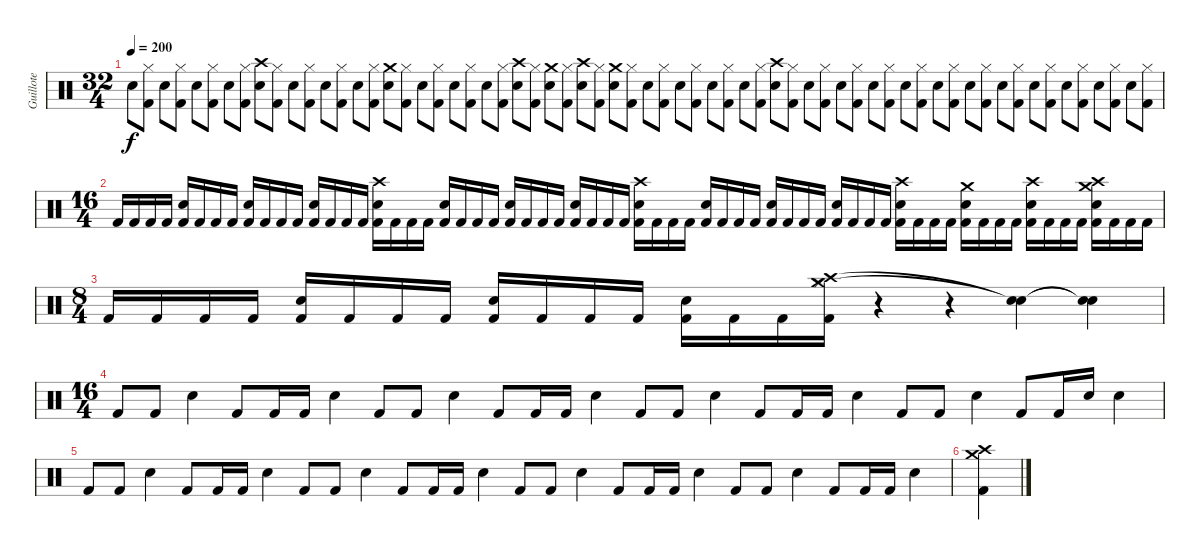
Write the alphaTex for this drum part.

\track ("Guillote" "Guillote") {instrument percussion}
\staff {score}
\articulation defaults
\ts (32 4)
\tempo 200
\clef neutral
\ks c "Electric Snare (hit)".8{dy f}
("Hi-Hat (closed)" "Kick (hit) 2").8 "Electric Snare (hit)".8 ("Hi-Hat (closed)" "Kick (hit) 2").8 "Electric Snare (hit)".8 ("Hi-Hat (closed)" "Kick (hit) 2").8 "Electric Snare (hit)".8 ("Hi-Hat (closed)" "Kick (hit) 2").8 ("Crash high (hit)" "Electric Snare (hit)").8 ("Hi-Hat (closed)" "Kick (hit) 2").8 "Electric Snare (hit)".8 ("Hi-Hat (closed)" "Kick (hit) 2").8 "Electric Snare (hit)".8 ("Hi-Hat (closed)" "Kick (hit) 2").8 "Electric Snare (hit)".8 ("Hi-Hat (closed)" "Kick (hit) 2").8 ("Crash medium (hit)" "Electric Snare (hit)").8 ("Hi-Hat (closed)" "Kick (hit) 2").8 "Electric Snare (hit)".8 ("Hi-Hat (closed)" "Kick (hit) 2").8 "Electric Snare (hit)".8 ("Hi-Hat (closed)" "Kick (hit) 2").8 "Electric Snare (hit)".8 ("Hi-Hat (closed)" "Kick (hit) 2").8 ("Crash high (hit)" "Electric Snare (hit)").8 ("Hi-Hat (closed)" "Kick (hit) 2").8 ("Crash medium (hit)" "Electric Snare (hit)").8 ("Hi-Hat (closed)" "Kick (hit) 2").8 ("Crash high (hit)" "Electric Snare (hit)").8 ("Hi-Hat (closed)" "Kick (hit) 2").8 ("Crash medium (hit)" "Electric Snare (hit)").8 ("Hi-Hat (closed)" "Kick (hit) 2").8 "Electric Snare (hit)".8 ("Hi-Hat (closed)" "Kick (hit) 2").8 "Electric Snare (hit)".8 ("Hi-Hat (closed)" "Kick (hit) 2").8 "Electric Snare (hit)".8 ("Hi-Hat (closed)" "Kick (hit) 2").8 "Electric Snare (hit)".8 ("Hi-Hat (closed)" "Kick (hit) 2").8 ("Crash high (hit)" "Electric Snare (hit)").8 ("Hi-Hat (closed)" "Kick (hit) 2").8 "Electric Snare (hit)".8 ("Hi-Hat (closed)" "Kick (hit) 2").8 "Electric Snare (hit)".8 ("Hi-Hat (closed)" "Kick (hit) 2").8 "Electric Snare (hit)".8 ("Hi-Hat (closed)" "Kick (hit) 2").8 "Electric Snare (hit)".8 ("Hi-Hat (closed)" "Kick (hit) 2").8 "Electric Snare (hit)".8 ("Hi-Hat (closed)" "Kick (hit) 2").8 "Electric Snare (hit)".8 ("Hi-Hat (closed)" "Kick (hit) 2").8 "Electric Snare (hit)".8 ("Hi-Hat (closed)" "Kick (hit) 2").8 "Electric Snare (hit)".8 ("Hi-Hat (closed)" "Kick (hit) 2").8 "Electric Snare (hit)".8 ("Hi-Hat (closed)" "Kick (hit) 2").8 "Electric Snare (hit)".8 ("Hi-Hat (closed)" "Kick (hit) 2").8 "Electric Snare (hit)".8 ("Hi-Hat (closed)" "Kick (hit) 2").8 |
\ts (16 4)
"Kick (hit) 2".16 "Kick (hit) 2".16 "Kick (hit) 2".16 "Kick (hit) 2".16 ("Electric Snare (hit)" "Kick (hit) 2").16 "Kick (hit) 2".16 "Kick (hit) 2".16 "Kick (hit) 2".16 ("Electric Snare (hit)" "Kick (hit) 2").16 "Kick (hit) 2".16 "Kick (hit) 2".16 "Kick (hit) 2".16 ("Electric Snare (hit)" "Kick (hit) 2").16 "Kick (hit) 2".16 "Kick (hit) 2".16 "Kick (hit) 2".16 ("Crash high (hit)" "Electric Snare (hit)" "Kick (hit) 2").16 "Kick (hit) 2".16 "Kick (hit) 2".16 "Kick (hit) 2".16 ("Electric Snare (hit)" "Kick (hit) 2").16 "Kick (hit) 2".16 "Kick (hit) 2".16 "Kick (hit) 2".16 ("Electric Snare (hit)" "Kick (hit) 2").16 "Kick (hit) 2".16 "Kick (hit) 2".16 "Kick (hit) 2".16 ("Electric Snare (hit)" "Kick (hit) 2").16 "Kick (hit) 2".16 "Kick (hit) 2".16 "Kick (hit) 2".16 ("Crash high (hit)" "Electric Snare (hit)" "Kick (hit) 2").16 "Kick (hit) 2".16 "Kick (hit) 2".16 "Kick (hit) 2".16 ("Electric Snare (hit)" "Kick (hit) 2").16 "Kick (hit) 2".16 "Kick (hit) 2".16 "Kick (hit) 2".16 ("Electric Snare (hit)" "Kick (hit) 2").16 "Kick (hit) 2".16 "Kick (hit) 2".16 "Kick (hit) 2".16 ("Electric Snare (hit)" "Kick (hit) 2").16 "Kick (hit) 2".16 "Kick (hit) 2".16 "Kick (hit) 2".16 ("Crash high (hit)" "Electric Snare (hit)" "Kick (hit) 2").16 "Kick (hit) 2".16 "Kick (hit) 2".16 "Kick (hit) 2".16 ("Crash medium (hit)" "Electric Snare (hit)" "Kick (hit) 2").16 "Kick (hit) 2".16 "Kick (hit) 2".16 "Kick (hit) 2".16 ("Crash high (hit)" "Electric Snare (hit)" "Kick (hit) 2").16 "Kick (hit) 2".16 "Kick (hit) 2".16 "Kick (hit) 2".16 ("Crash medium (hit)" "Crash high (hit)" "Electric Snare (hit)" "Kick (hit) 2").16 "Kick (hit) 2".16 "Kick (hit) 2".16 "Kick (hit) 2".16 |
\ts (8 4)
"Kick (hit) 2".16 "Kick (hit) 2".16 "Kick (hit) 2".16 "Kick (hit) 2".16 ("Electric Snare (hit)" "Kick (hit) 2").16 "Kick (hit) 2".16 "Kick (hit) 2".16 "Kick (hit) 2".16 ("Electric Snare (hit)" "Kick (hit) 2").16 "Kick (hit) 2".16 "Kick (hit) 2".16 "Kick (hit) 2".16 ("Electric Snare (hit)" "Kick (hit) 2").16 "Kick (hit) 2".16 "Kick (hit) 2".16 ("Crash high (hit)" "Crash medium (hit)" "Hi-Hat (closed)" "Kick (hit) 2").16 r.4 r.4 ("Snare (hit)"{t} "Snare (hit)"{t}).4 ("Snare (hit)"{t} "Snare (hit)"{t}).4 |
\ts (16 4)
"Kick (hit) 2".8 "Kick (hit) 2".8 "Electric Snare (hit)".4 "Kick (hit) 2".8 "Kick (hit) 2".16 "Kick (hit) 2".16 "Electric Snare (hit)".4 "Kick (hit) 2".8 "Kick (hit) 2".8 "Electric Snare (hit)".4 "Kick (hit) 2".8 "Kick (hit) 2".16 "Kick (hit) 2".16 "Electric Snare (hit)".4 "Kick (hit) 2".8 "Kick (hit) 2".8 "Electric Snare (hit)".4 "Kick (hit) 2".8 "Kick (hit) 2".16 "Kick (hit) 2".16 "Electric Snare (hit)".4 "Kick (hit) 2".8 "Kick (hit) 2".8 "Electric Snare (hit)".4 "Kick (hit) 2".8 "Kick (hit) 2".16 "Electric Snare (hit)".16 "Electric Snare (hit)".4 |
"Kick (hit) 2".8 "Kick (hit) 2".8 "Electric Snare (hit)".4 "Kick (hit) 2".8 "Kick (hit) 2".16 "Kick (hit) 2".16 "Electric Snare (hit)".4 "Kick (hit) 2".8 "Kick (hit) 2".8 "Electric Snare (hit)".4 "Kick (hit) 2".8 "Kick (hit) 2".16 "Kick (hit) 2".16 "Electric Snare (hit)".4 "Kick (hit) 2".8 "Kick (hit) 2".8 "Electric Snare (hit)".4 "Kick (hit) 2".8 "Kick (hit) 2".16 "Kick (hit) 2".16 "Electric Snare (hit)".4 "Kick (hit) 2".8 "Kick (hit) 2".8 "Electric Snare (hit)".4 "Kick (hit) 2".8 "Kick (hit) 2".16 "Kick (hit) 2".16 "Electric Snare (hit)".4 |
("Crash medium (hit)" "Crash high (hit)" "Kick (hit) 2").4
